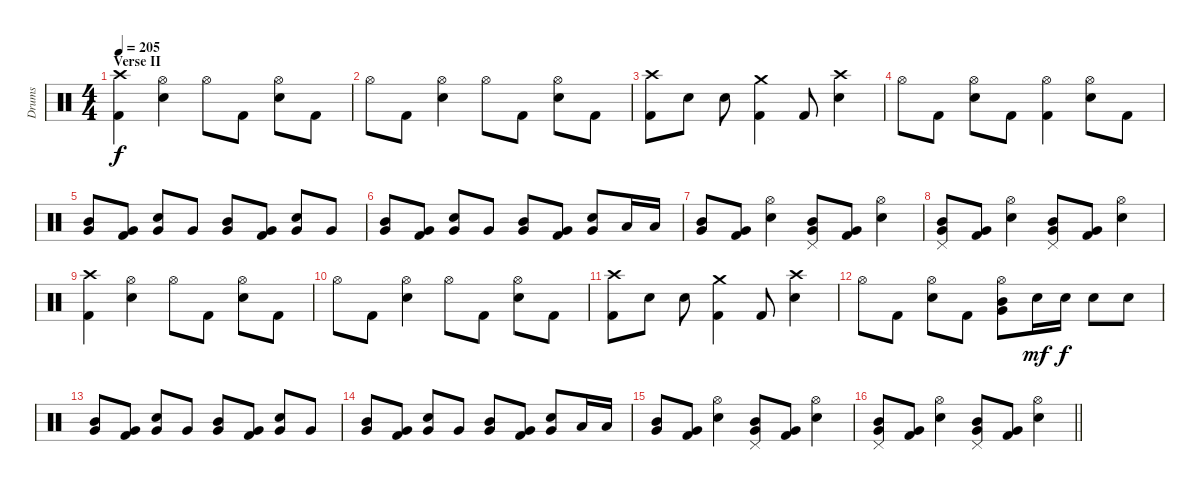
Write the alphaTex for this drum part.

\track ("Drums" "Drums") {instrument percussion}
\staff {score}
\articulation defaults
\ts (4 4)
\section ("" "Verse II")
\tempo 205
\clef neutral
\ks c
("Crash high (hit)" "Kick (hit) 2").4{dy f} ("Hi-Hat (open)" "Electric Snare (hit)").4 "Hi-Hat (open)".8 "Kick (hit) 2".8 ("Hi-Hat (open)" "Electric Snare (hit)").8 "Kick (hit) 2".8 |
"Hi-Hat (open)".8 "Kick (hit) 2".8 ("Hi-Hat (open)" "Electric Snare (hit)").4 "Hi-Hat (open)".8 "Kick (hit) 2".8 ("Hi-Hat (open)" "Electric Snare (hit)").8 "Kick (hit) 2".8 |
("Crash high (hit)" "Kick (hit) 2").8 "Electric Snare (hit)".8 "Electric Snare (hit)".8 ("Crash medium (hit)" "Kick (hit) 2").4 "Kick (hit) 2".8 ("Crash high (hit)" "Electric Snare (hit)").4 |
"Hi-Hat (open)".8 "Kick (hit) 2".8 ("Hi-Hat (open)" "Electric Snare (hit)").8 "Kick (hit) 2".8 ("Hi-Hat (open)" "Kick (hit) 2").4 ("Hi-Hat (open)" "Electric Snare (hit)").8 "Kick (hit) 2".8 |
("Mid Tom (hit)" "Very Low Tom (hit)").8 ("Very Low Tom (hit)" "Kick (hit) 2").8 ("Electric Snare (hit)" "Very Low Tom (hit)").8 "Very Low Tom (hit)".8 ("Mid Tom (hit)" "Very Low Tom (hit)").8 ("Very Low Tom (hit)" "Kick (hit) 2").8 ("Electric Snare (hit)" "Very Low Tom (hit)").8 "Very Low Tom (hit)".8 |
("Mid Tom (hit)" "Very Low Tom (hit)").8 ("Very Low Tom (hit)" "Kick (hit) 2").8 ("Electric Snare (hit)" "Very Low Tom (hit)").8 "Very Low Tom (hit)".8 ("Mid Tom (hit)" "Very Low Tom (hit)").8 ("Very Low Tom (hit)" "Kick (hit) 2").8 ("Electric Snare (hit)" "Very Low Tom (hit)").8 "Low Tom (hit)".16 "Low Tom (hit)".16 |
("Mid Tom (hit)" "Very Low Tom (hit)").8 ("Very Low Tom (hit)" "Kick (hit) 2").8 ("Hi-Hat (open)" "Electric Snare (hit)").4 ("Pedal Hi-Hat (hit)" "Mid Tom (hit)" "Very Low Tom (hit)").8 ("Very Low Tom (hit)" "Kick (hit) 2").8 ("Hi-Hat (open)" "Electric Snare (hit)").4 |
("Pedal Hi-Hat (hit)" "Mid Tom (hit)" "Very Low Tom (hit)").8 ("Very Low Tom (hit)" "Kick (hit) 2").8 ("Hi-Hat (open)" "Electric Snare (hit)").4 ("Pedal Hi-Hat (hit)" "Mid Tom (hit)" "Very Low Tom (hit)").8 ("Very Low Tom (hit)" "Kick (hit) 2").8 ("Hi-Hat (open)" "Electric Snare (hit)").4 |
("Crash high (hit)" "Kick (hit) 2").4 ("Hi-Hat (open)" "Electric Snare (hit)").4 "Hi-Hat (open)".8 "Kick (hit) 2".8 ("Hi-Hat (open)" "Electric Snare (hit)").8 "Kick (hit) 2".8 |
"Hi-Hat (open)".8 "Kick (hit) 2".8 ("Hi-Hat (open)" "Electric Snare (hit)").4 "Hi-Hat (open)".8 "Kick (hit) 2".8 ("Hi-Hat (open)" "Electric Snare (hit)").8 "Kick (hit) 2".8 |
("Crash high (hit)" "Kick (hit) 2").8 "Electric Snare (hit)".8 "Electric Snare (hit)".8 ("Crash medium (hit)" "Kick (hit) 2").4 "Kick (hit) 2".8 ("Crash high (hit)" "Electric Snare (hit)").4 |
"Hi-Hat (open)".8 "Kick (hit) 2".8 ("Hi-Hat (open)" "Electric Snare (hit)").8 "Kick (hit) 2".8 ("Hi-Hat (open)" "Mid Tom (hit)" "Very Low Tom (hit)").8 "Electric Snare (hit)".16{dy mf} "Electric Snare (hit)".16{dy f} "Electric Snare (hit)".8 "Electric Snare (hit)".8 |
("Mid Tom (hit)" "Very Low Tom (hit)").8 ("Very Low Tom (hit)" "Kick (hit) 2").8 ("Electric Snare (hit)" "Very Low Tom (hit)").8 "Very Low Tom (hit)".8 ("Mid Tom (hit)" "Very Low Tom (hit)").8 ("Very Low Tom (hit)" "Kick (hit) 2").8 ("Electric Snare (hit)" "Very Low Tom (hit)").8 "Very Low Tom (hit)".8 |
("Mid Tom (hit)" "Very Low Tom (hit)").8 ("Very Low Tom (hit)" "Kick (hit) 2").8 ("Electric Snare (hit)" "Very Low Tom (hit)").8 "Very Low Tom (hit)".8 ("Mid Tom (hit)" "Very Low Tom (hit)").8 ("Very Low Tom (hit)" "Kick (hit) 2").8 ("Electric Snare (hit)" "Very Low Tom (hit)").8 "Low Tom (hit)".16 "Low Tom (hit)".16 |
("Mid Tom (hit)" "Very Low Tom (hit)").8 ("Very Low Tom (hit)" "Kick (hit) 2").8 ("Hi-Hat (open)" "Electric Snare (hit)").4 ("Pedal Hi-Hat (hit)" "Mid Tom (hit)" "Very Low Tom (hit)").8 ("Very Low Tom (hit)" "Kick (hit) 2").8 ("Hi-Hat (open)" "Electric Snare (hit)").4 |
\barLineRight lightlight
("Pedal Hi-Hat (hit)" "Mid Tom (hit)" "Very Low Tom (hit)").8 ("Very Low Tom (hit)" "Kick (hit) 2").8 ("Hi-Hat (open)" "Electric Snare (hit)").4 ("Pedal Hi-Hat (hit)" "Mid Tom (hit)" "Very Low Tom (hit)").8 ("Very Low Tom (hit)" "Kick (hit) 2").8 ("Hi-Hat (open)" "Electric Snare (hit)").4
